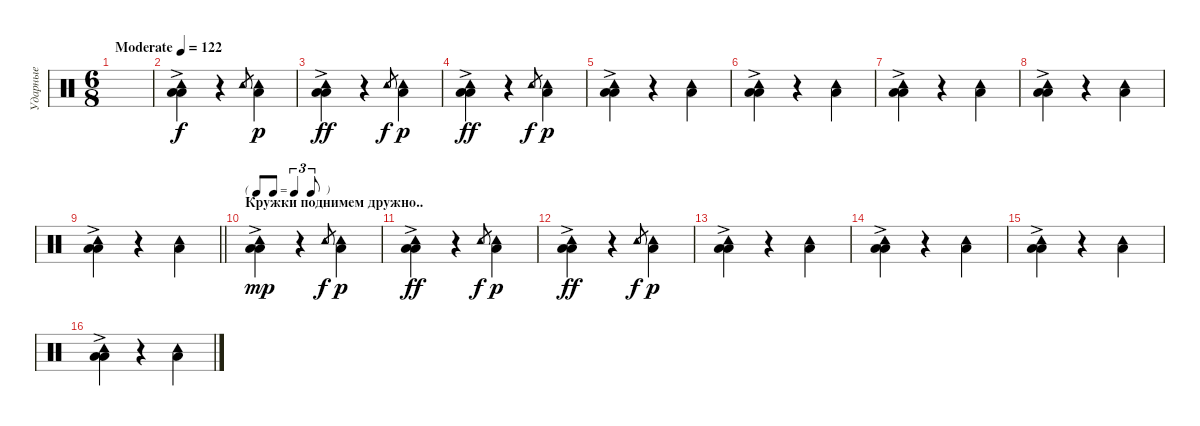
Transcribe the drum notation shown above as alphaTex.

\track ("Ударные" "Ударные") {instrument percussion}
\staff {score}
\articulation defaults
\ts (6 8)
\tempo (122 "Moderate")
\clef neutral
\ks c
|
("Tambourine (hit)"{ac} "Low Tom (hit)" "Low Floor Tom (hit)").4 r.4 "Tambourine (hit)".8{gr dy f} ("Low Floor Tom (hit)" "Tambourine (hit)").4{dy p} |
("Low Floor Tom (hit)"{ac} "Low Tom (hit)" "Tambourine (hit)").4{dy ff} r.4 "Tambourine (hit)".8{gr dy f} ("Low Floor Tom (hit)" "Tambourine (hit)").4{dy p} |
("Low Floor Tom (hit)"{ac} "Low Tom (hit)" "Tambourine (hit)").4{dy ff} r.4 "Tambourine (hit)".8{gr dy f} ("Low Floor Tom (hit)" "Tambourine (hit)").4{dy p} |
("Low Floor Tom (hit)"{ac} "Low Tom (hit)" "Tambourine (hit)").4 r.4 ("Low Floor Tom (hit)" "Tambourine (hit)").4 |
("Low Floor Tom (hit)"{ac} "Low Tom (hit)" "Tambourine (hit)").4 r.4 ("Low Floor Tom (hit)" "Tambourine (hit)").4 |
("Low Floor Tom (hit)"{ac} "Low Tom (hit)" "Tambourine (hit)").4 r.4 ("Low Floor Tom (hit)" "Tambourine (hit)").4 |
("Low Floor Tom (hit)"{ac} "Low Tom (hit)" "Tambourine (hit)").4 r.4 ("Low Floor Tom (hit)" "Tambourine (hit)").4 |
\barLineRight lightlight
("Low Floor Tom (hit)"{ac} "Low Tom (hit)" "Tambourine (hit)").4 r.4 ("Low Floor Tom (hit)" "Tambourine (hit)").4 |
\tf triplet8th
\section ("" "Кружки поднимем дружно..")
("Tambourine (hit)"{ac} "Low Tom (hit)" "Low Floor Tom (hit)").4{dy mp} r.4 "Tambourine (hit)".8{gr dy f} ("Low Floor Tom (hit)" "Tambourine (hit)").4{dy p} |
("Low Floor Tom (hit)"{ac} "Low Tom (hit)" "Tambourine (hit)").4{dy ff} r.4 "Tambourine (hit)".8{gr dy f} ("Low Floor Tom (hit)" "Tambourine (hit)").4{dy p} |
("Low Floor Tom (hit)"{ac} "Low Tom (hit)" "Tambourine (hit)").4{dy ff} r.4 "Tambourine (hit)".8{gr dy f} ("Low Floor Tom (hit)" "Tambourine (hit)").4{dy p} |
("Low Floor Tom (hit)"{ac} "Low Tom (hit)" "Tambourine (hit)").4 r.4 ("Low Floor Tom (hit)" "Tambourine (hit)").4 |
("Low Floor Tom (hit)"{ac} "Low Tom (hit)" "Tambourine (hit)").4 r.4 ("Low Floor Tom (hit)" "Tambourine (hit)").4 |
("Low Floor Tom (hit)"{ac} "Low Tom (hit)" "Tambourine (hit)").4 r.4 ("Low Floor Tom (hit)" "Tambourine (hit)").4 |
("Low Floor Tom (hit)"{ac} "Low Tom (hit)" "Tambourine (hit)").4 r.4 ("Low Floor Tom (hit)" "Tambourine (hit)").4
